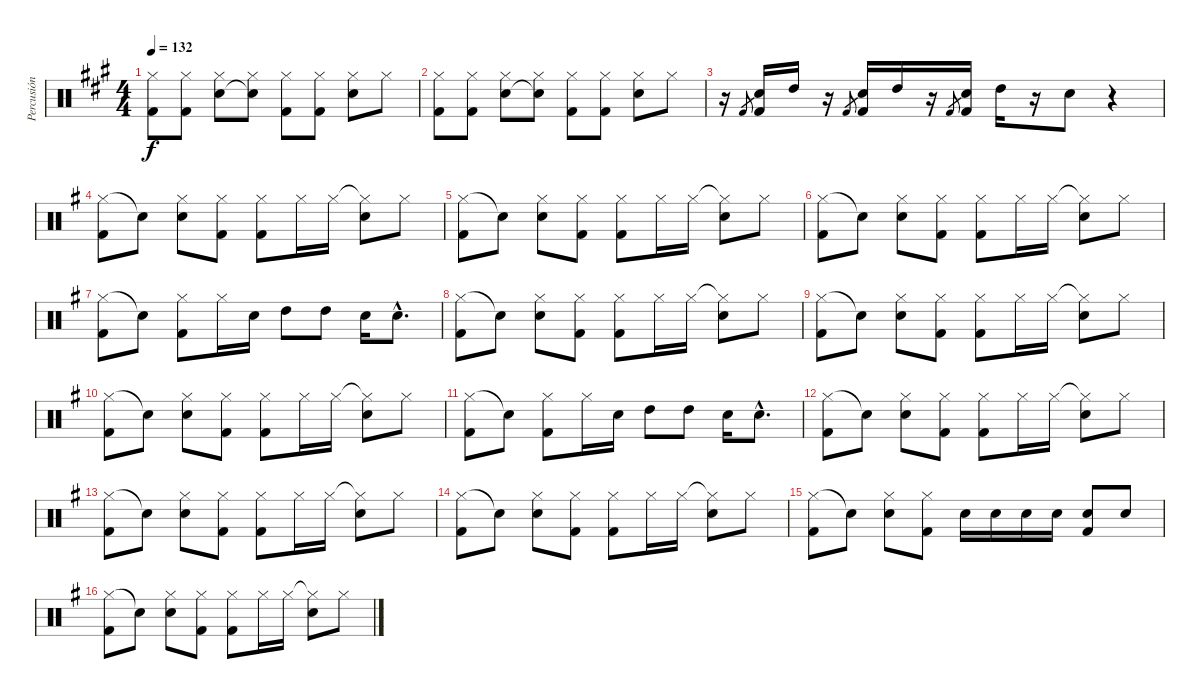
\track ("Percusión" "Percusión") {instrument percussion}
\staff {score}
\articulation defaults
\ts (4 4)
\tempo 132
\clef neutral
\ks f#minor
("Hi-Hat (closed)" "Kick (hit) 2").8{dy f} ("Hi-Hat (closed)" "Kick (hit) 2").8 ("Hi-Hat (closed)" "Electric Snare (hit)").8 ("Hi-Hat (closed)" "Snare (hit)"{t}).8 ("Hi-Hat (closed)" "Kick (hit) 2").8 ("Hi-Hat (closed)" "Kick (hit) 2").8 ("Hi-Hat (closed)" "Electric Snare (hit)").8 "Hi-Hat (closed)".8 |
("Hi-Hat (closed)" "Kick (hit) 2").8 ("Hi-Hat (closed)" "Kick (hit) 2").8 ("Hi-Hat (closed)" "Electric Snare (hit)").8 ("Hi-Hat (closed)" "Snare (hit)"{t}).8 ("Hi-Hat (closed)" "Kick (hit) 2").8 ("Hi-Hat (closed)" "Kick (hit) 2").8 ("Hi-Hat (closed)" "Electric Snare (hit)").8 "Hi-Hat (closed)".8 |
r.16 "Kick (hit) 2".8{gr} ("Electric Snare (hit)" "Kick (hit) 2").16 "High Tom (hit)".16 r.16 "Kick (hit) 2".8{gr} ("Electric Snare (hit)" "Kick (hit) 2").16 "High Tom (hit)".16 r.16 "Kick (hit) 2".8{gr} ("Electric Snare (hit)" "Kick (hit) 2").16 "High Tom (hit)".16 r.16 "Electric Snare (hit)".8 r.4 |
\ks eminor
("Hi-Hat (closed)" "Kick (hit) 2").8 "Snare (hit)"{t}.8 ("Hi-Hat (closed)" "Electric Snare (hit)").8 ("Hi-Hat (closed)" "Kick (hit) 2").8 ("Hi-Hat (closed)" "Kick (hit) 2").8 "Hi-Hat (closed)".16 "Hi-Hat (closed)".16 ("Hi-Hat (closed)"{t} "Electric Snare (hit)").8 "Hi-Hat (closed)".8 |
("Hi-Hat (closed)" "Kick (hit) 2").8 "Snare (hit)"{t}.8 ("Hi-Hat (closed)" "Electric Snare (hit)").8 ("Hi-Hat (closed)" "Kick (hit) 2").8 ("Hi-Hat (closed)" "Kick (hit) 2").8 "Hi-Hat (closed)".16 "Hi-Hat (closed)".16 ("Hi-Hat (closed)"{t} "Electric Snare (hit)").8 "Hi-Hat (closed)".8 |
("Hi-Hat (closed)" "Kick (hit) 2").8 "Snare (hit)"{t}.8 ("Hi-Hat (closed)" "Electric Snare (hit)").8 ("Hi-Hat (closed)" "Kick (hit) 2").8 ("Hi-Hat (closed)" "Kick (hit) 2").8 "Hi-Hat (closed)".16 "Hi-Hat (closed)".16 ("Hi-Hat (closed)"{t} "Electric Snare (hit)").8 "Hi-Hat (closed)".8 |
("Hi-Hat (closed)" "Kick (hit) 2").8 "Snare (hit)"{t}.8 ("Hi-Hat (closed)" "Kick (hit) 2").8 "Hi-Hat (closed)".16 "Electric Snare (hit)".16 "High Tom (hit)".8 "High Tom (hit)".8 "Electric Snare (hit)".16 "Electric Snare (hit)"{hac}.8{d} |
("Hi-Hat (closed)" "Kick (hit) 2").8 "Snare (hit)"{t}.8 ("Hi-Hat (closed)" "Electric Snare (hit)").8 ("Hi-Hat (closed)" "Kick (hit) 2").8 ("Hi-Hat (closed)" "Kick (hit) 2").8 "Hi-Hat (closed)".16 "Hi-Hat (closed)".16 ("Hi-Hat (closed)"{t} "Electric Snare (hit)").8 "Hi-Hat (closed)".8 |
("Hi-Hat (closed)" "Kick (hit) 2").8 "Snare (hit)"{t}.8 ("Hi-Hat (closed)" "Electric Snare (hit)").8 ("Hi-Hat (closed)" "Kick (hit) 2").8 ("Hi-Hat (closed)" "Kick (hit) 2").8 "Hi-Hat (closed)".16 "Hi-Hat (closed)".16 ("Hi-Hat (closed)"{t} "Electric Snare (hit)").8 "Hi-Hat (closed)".8 |
("Hi-Hat (closed)" "Kick (hit) 2").8 "Snare (hit)"{t}.8 ("Hi-Hat (closed)" "Electric Snare (hit)").8 ("Hi-Hat (closed)" "Kick (hit) 2").8 ("Hi-Hat (closed)" "Kick (hit) 2").8 "Hi-Hat (closed)".16 "Hi-Hat (closed)".16 ("Hi-Hat (closed)"{t} "Electric Snare (hit)").8 "Hi-Hat (closed)".8 |
("Hi-Hat (closed)" "Kick (hit) 2").8 "Snare (hit)"{t}.8 ("Hi-Hat (closed)" "Kick (hit) 2").8 "Hi-Hat (closed)".16 "Electric Snare (hit)".16 "High Tom (hit)".8 "High Tom (hit)".8 "Electric Snare (hit)".16 "Electric Snare (hit)"{hac}.8{d} |
("Hi-Hat (closed)" "Kick (hit) 2").8 "Snare (hit)"{t}.8 ("Hi-Hat (closed)" "Electric Snare (hit)").8 ("Hi-Hat (closed)" "Kick (hit) 2").8 ("Hi-Hat (closed)" "Kick (hit) 2").8 "Hi-Hat (closed)".16 "Hi-Hat (closed)".16 ("Hi-Hat (closed)"{t} "Electric Snare (hit)").8 "Hi-Hat (closed)".8 |
("Hi-Hat (closed)" "Kick (hit) 2").8 "Snare (hit)"{t}.8 ("Hi-Hat (closed)" "Electric Snare (hit)").8 ("Hi-Hat (closed)" "Kick (hit) 2").8 ("Hi-Hat (closed)" "Kick (hit) 2").8 "Hi-Hat (closed)".16 "Hi-Hat (closed)".16 ("Hi-Hat (closed)"{t} "Electric Snare (hit)").8 "Hi-Hat (closed)".8 |
("Hi-Hat (closed)" "Kick (hit) 2").8 "Snare (hit)"{t}.8 ("Hi-Hat (closed)" "Electric Snare (hit)").8 ("Hi-Hat (closed)" "Kick (hit) 2").8 ("Hi-Hat (closed)" "Kick (hit) 2").8 "Hi-Hat (closed)".16 "Hi-Hat (closed)".16 ("Hi-Hat (closed)"{t} "Electric Snare (hit)").8 "Hi-Hat (closed)".8 |
("Hi-Hat (closed)" "Kick (hit) 2").8 "Snare (hit)"{t}.8 ("Hi-Hat (closed)" "Electric Snare (hit)").8 ("Hi-Hat (closed)" "Kick (hit) 2").8 "Electric Snare (hit)".16 "Electric Snare (hit)".16 "Electric Snare (hit)".16 "Electric Snare (hit)".16 ("Electric Snare (hit)" "Kick (hit) 2").8 "Electric Snare (hit)".8 |
("Hi-Hat (closed)" "Kick (hit) 2").8 "Snare (hit)"{t}.8 ("Hi-Hat (closed)" "Electric Snare (hit)").8 ("Hi-Hat (closed)" "Kick (hit) 2").8 ("Hi-Hat (closed)" "Kick (hit) 2").8 "Hi-Hat (closed)".16 "Hi-Hat (closed)".16 ("Hi-Hat (closed)"{t} "Electric Snare (hit)").8 "Hi-Hat (closed)".8
